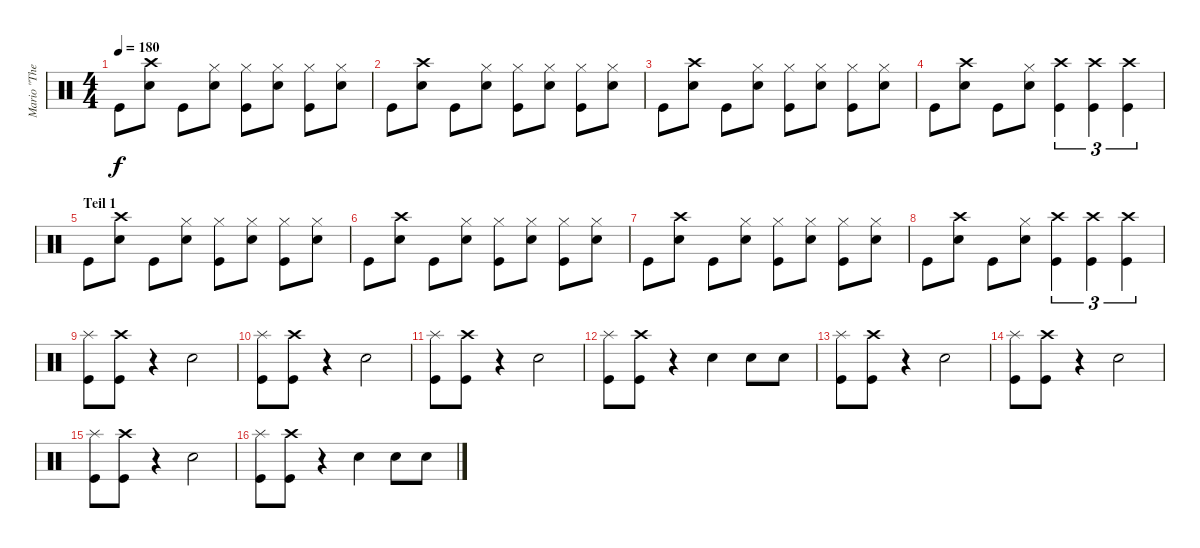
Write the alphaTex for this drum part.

\track ("Mario \"The dremmel\" Hirt" "Mario \"The") {instrument percussion}
\staff {score}
\articulation defaults
\ts (4 4)
\tempo 180
\clef neutral
\ks c "Kick (hit)".8{dy f}
("Crash high (hit)" "Electric Snare (hit)").8 "Kick (hit)".8 ("Hi-Hat (closed)" "Electric Snare (hit)").8 ("Hi-Hat (closed)" "Kick (hit)").8 ("Hi-Hat (closed)" "Electric Snare (hit)").8 ("Hi-Hat (closed)" "Kick (hit)").8 ("Hi-Hat (closed)" "Electric Snare (hit)").8 |
"Kick (hit)".8 ("Crash high (hit)" "Electric Snare (hit)").8 "Kick (hit)".8 ("Hi-Hat (closed)" "Electric Snare (hit)").8 ("Hi-Hat (closed)" "Kick (hit)").8 ("Hi-Hat (closed)" "Electric Snare (hit)").8 ("Hi-Hat (closed)" "Kick (hit)").8 ("Hi-Hat (closed)" "Electric Snare (hit)").8 |
"Kick (hit)".8 ("Crash high (hit)" "Electric Snare (hit)").8 "Kick (hit)".8 ("Hi-Hat (closed)" "Electric Snare (hit)").8 ("Hi-Hat (closed)" "Kick (hit)").8 ("Hi-Hat (closed)" "Electric Snare (hit)").8 ("Hi-Hat (closed)" "Kick (hit)").8 ("Hi-Hat (closed)" "Electric Snare (hit)").8 |
"Kick (hit)".8 ("Crash high (hit)" "Electric Snare (hit)").8 "Kick (hit)".8 ("Hi-Hat (closed)" "Electric Snare (hit)").8 ("Crash high (hit)" "Kick (hit)").4{tu (3 2)} ("Crash high (hit)" "Kick (hit)").4{tu (3 2)} ("Crash high (hit)" "Kick (hit)").4{tu (3 2)} |
\section ("" "Teil 1")
"Kick (hit)".8 ("Crash high (hit)" "Electric Snare (hit)").8 "Kick (hit)".8 ("Hi-Hat (closed)" "Electric Snare (hit)").8 ("Hi-Hat (closed)" "Kick (hit)").8 ("Hi-Hat (closed)" "Electric Snare (hit)").8 ("Hi-Hat (closed)" "Kick (hit)").8 ("Hi-Hat (closed)" "Electric Snare (hit)").8 |
"Kick (hit)".8 ("Crash high (hit)" "Electric Snare (hit)").8 "Kick (hit)".8 ("Hi-Hat (closed)" "Electric Snare (hit)").8 ("Hi-Hat (closed)" "Kick (hit)").8 ("Hi-Hat (closed)" "Electric Snare (hit)").8 ("Hi-Hat (closed)" "Kick (hit)").8 ("Hi-Hat (closed)" "Electric Snare (hit)").8 |
"Kick (hit)".8 ("Crash high (hit)" "Electric Snare (hit)").8 "Kick (hit)".8 ("Hi-Hat (closed)" "Electric Snare (hit)").8 ("Hi-Hat (closed)" "Kick (hit)").8 ("Hi-Hat (closed)" "Electric Snare (hit)").8 ("Hi-Hat (closed)" "Kick (hit)").8 ("Hi-Hat (closed)" "Electric Snare (hit)").8 |
"Kick (hit)".8 ("Crash high (hit)" "Electric Snare (hit)").8 "Kick (hit)".8 ("Hi-Hat (closed)" "Electric Snare (hit)").8 ("Crash high (hit)" "Kick (hit)").4{tu (3 2)} ("Crash high (hit)" "Kick (hit)").4{tu (3 2)} ("Crash high (hit)" "Kick (hit)").4{tu (3 2)} |
("Splash (hit)" "Kick (hit)").8 ("Crash high (hit)" "Kick (hit)").8 r.4 "Electric Snare (hit)".2 |
("Splash (hit)" "Kick (hit)").8 ("Crash high (hit)" "Kick (hit)").8 r.4 "Electric Snare (hit)".2 |
("Splash (hit)" "Kick (hit)").8 ("Crash high (hit)" "Kick (hit)").8 r.4 "Electric Snare (hit)".2 |
("Splash (hit)" "Kick (hit)").8 ("Crash high (hit)" "Kick (hit)").8 r.4 "Electric Snare (hit)".4 "Electric Snare (hit)".8 "Electric Snare (hit)".8 |
("Splash (hit)" "Kick (hit)").8 ("Crash high (hit)" "Kick (hit)").8 r.4 "Electric Snare (hit)".2 |
("Splash (hit)" "Kick (hit)").8 ("Crash high (hit)" "Kick (hit)").8 r.4 "Electric Snare (hit)".2 |
("Splash (hit)" "Kick (hit)").8 ("Crash high (hit)" "Kick (hit)").8 r.4 "Electric Snare (hit)".2 |
("Splash (hit)" "Kick (hit)").8 ("Crash high (hit)" "Kick (hit)").8 r.4 "Electric Snare (hit)".4 "Electric Snare (hit)".8 "Electric Snare (hit)".8
